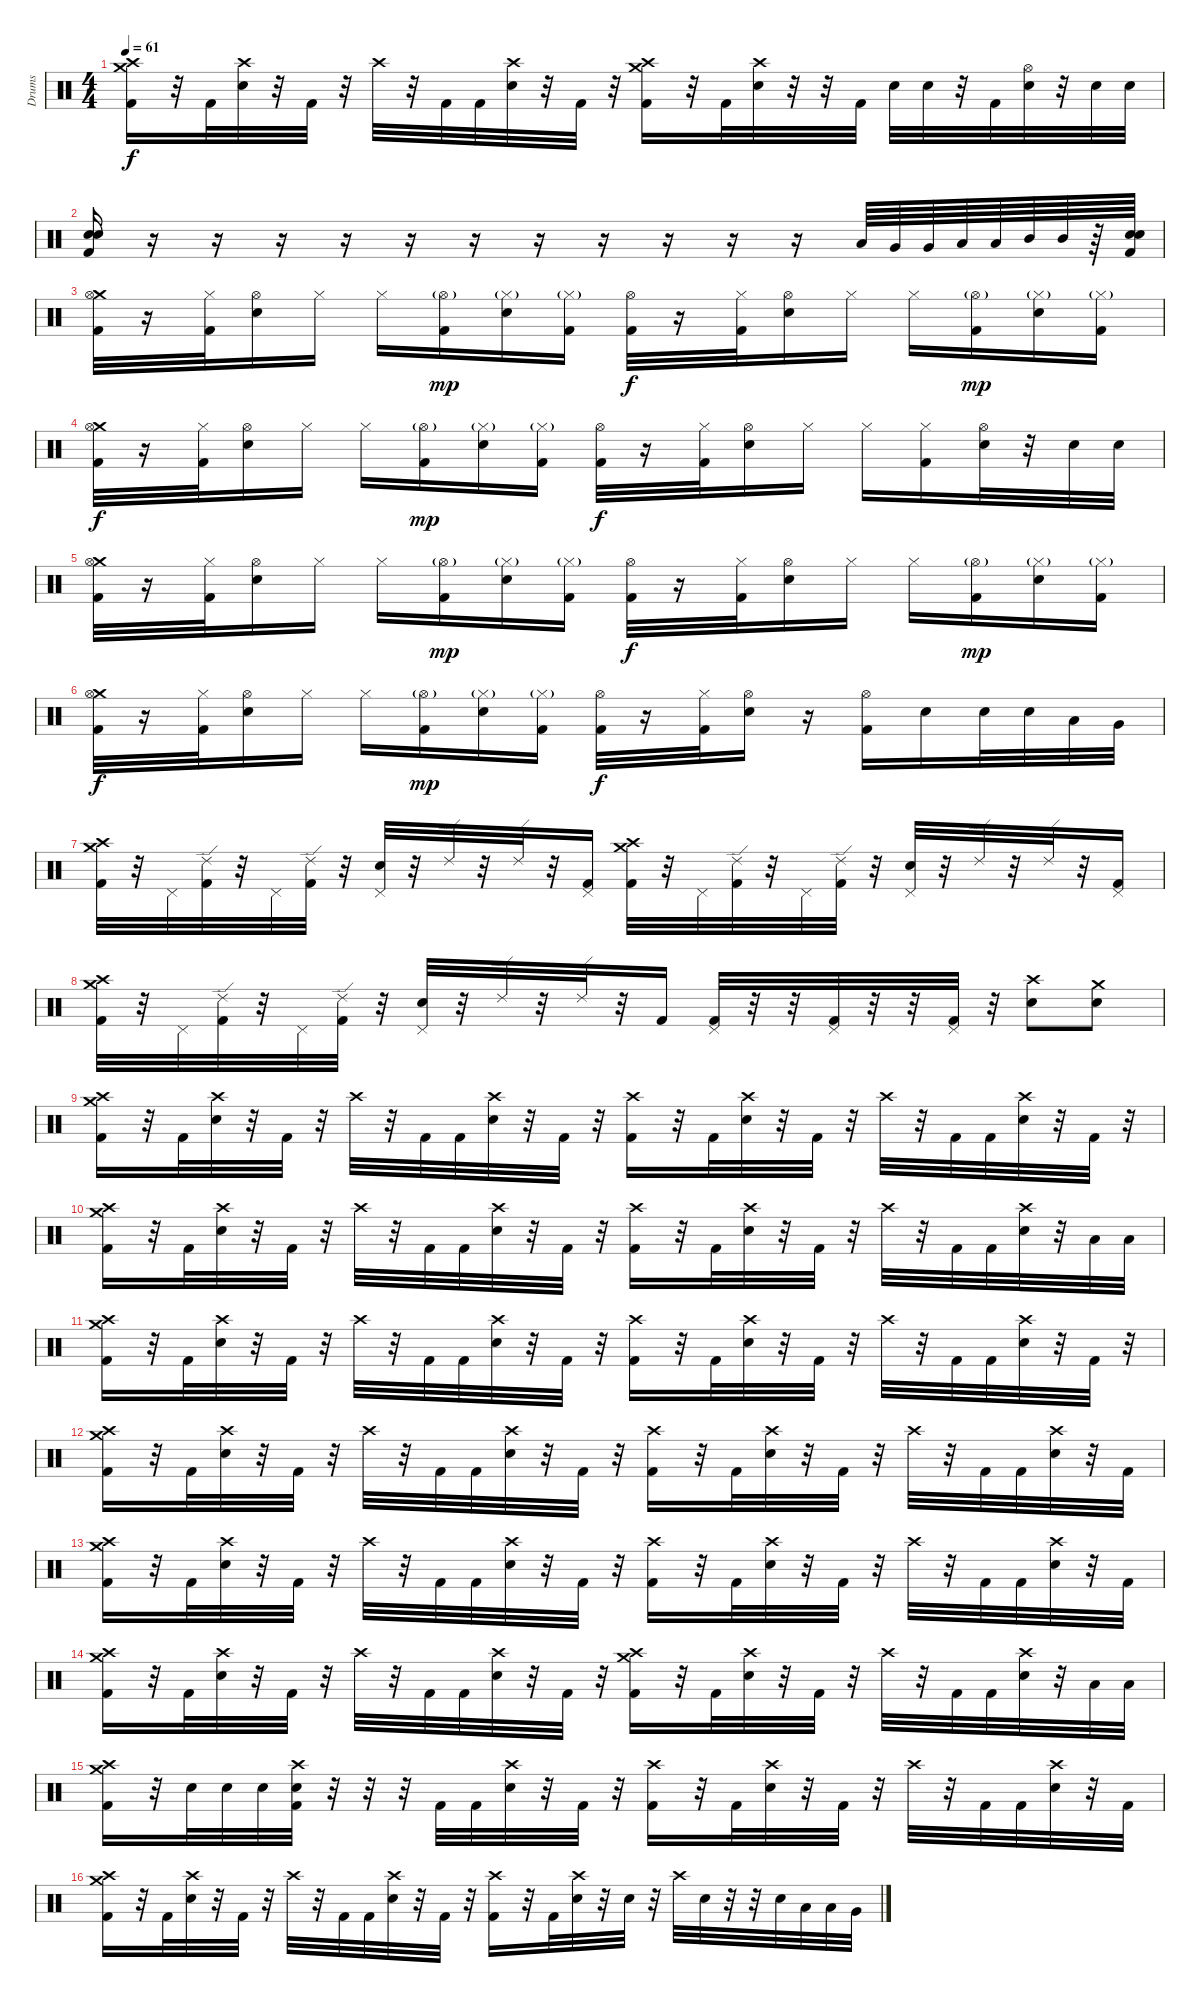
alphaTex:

\track ("Drums" "Drums") {instrument percussion}
\staff {score}
\articulation defaults
\ts (4 4)
\tempo 61
\clef neutral
\ks c
("Crash high (hit)" "Crash medium (hit)" "Kick (hit) 2").16{dy f} r.32 "Kick (hit) 2".32 ("Crash high (hit)" "Electric Snare (hit)").32 r.32 "Kick (hit) 2".32 r.32 "Crash high (hit)".32 r.32 "Kick (hit) 2".32 "Kick (hit) 2".32 ("Crash high (hit)" "Electric Snare (hit)").32 r.32 "Kick (hit) 2".32 r.32 ("Crash high (hit)" "Crash medium (hit)" "Kick (hit) 2").16 r.32 "Kick (hit) 2".32 ("Crash high (hit)" "Electric Snare (hit)").32 r.32 r.32 "Kick (hit) 2".32 "Electric Snare (hit)".32 "Electric Snare (hit)".32 r.32 "Kick (hit) 2".32 ("Hi-Hat (open)" "Electric Snare (hit)").32 r.32 "Electric Snare (hit)".32 "Electric Snare (hit)".32 |
("Electric Snare (hit)" "Electric Snare (hit)" "Kick (hit) 2").16 r.16 r.16 r.16 r.16 r.16 r.16 r.16 r.16 r.16 r.16 r.16 "Low Floor Tom (hit)".64 "Very Low Tom (hit)".64 "Very Low Tom (hit)".64 "Low Tom (hit)".64 "Low Tom (hit)".64 "Mid Tom (hit)".64 "Mid Tom (hit)".64 r.64 ("Electric Snare (hit)" "Electric Snare (hit)" "Kick (hit) 2").64 |
("Crash medium (hit)" "Hi-Hat (open)" "Kick (hit) 2").32 r.16 ("Hi-Hat (closed)" "Kick (hit) 2").32 ("Hi-Hat (open)" "Electric Snare (hit)").16 "Hi-Hat (closed)".16 "Hi-Hat (closed)".16 ("Hi-Hat (open)"{g} "Kick (hit) 2").16{dy mp} ("Hi-Hat (closed)"{g} "Electric Snare (hit)").16 ("Hi-Hat (closed)"{g} "Kick (hit) 2").16 ("Hi-Hat (open)" "Kick (hit) 2").32{dy f} r.16 ("Hi-Hat (closed)" "Kick (hit) 2").32 ("Hi-Hat (open)" "Electric Snare (hit)").16 "Hi-Hat (closed)".16 "Hi-Hat (closed)".16 ("Hi-Hat (open)"{g} "Kick (hit) 2").16{dy mp} ("Hi-Hat (closed)"{g} "Electric Snare (hit)").16 ("Hi-Hat (closed)"{g} "Kick (hit) 2").16 |
("Crash medium (hit)" "Hi-Hat (open)" "Kick (hit) 2").32{dy f} r.16 ("Hi-Hat (closed)" "Kick (hit) 2").32 ("Hi-Hat (open)" "Electric Snare (hit)").16 "Hi-Hat (closed)".16 "Hi-Hat (closed)".16 ("Hi-Hat (open)"{g} "Kick (hit) 2").16{dy mp} ("Hi-Hat (closed)"{g} "Electric Snare (hit)").16 ("Hi-Hat (closed)"{g} "Kick (hit) 2").16 ("Hi-Hat (open)" "Kick (hit) 2").32{dy f} r.16 ("Hi-Hat (closed)" "Kick (hit) 2").32 ("Hi-Hat (open)" "Electric Snare (hit)").16 "Hi-Hat (closed)".16 "Hi-Hat (closed)".16 ("Hi-Hat (closed)" "Kick (hit) 2").16 ("Hi-Hat (open)" "Electric Snare (hit)").32 r.32 "Electric Snare (hit)".32 "Electric Snare (hit)".32 |
("Crash medium (hit)" "Hi-Hat (open)" "Kick (hit) 2").32 r.16 ("Hi-Hat (closed)" "Kick (hit) 2").32 ("Hi-Hat (open)" "Electric Snare (hit)").16 "Hi-Hat (closed)".16 "Hi-Hat (closed)".16 ("Hi-Hat (open)"{g} "Kick (hit) 2").16{dy mp} ("Hi-Hat (closed)"{g} "Electric Snare (hit)").16 ("Hi-Hat (closed)"{g} "Kick (hit) 2").16 ("Hi-Hat (open)" "Kick (hit) 2").32{dy f} r.16 ("Hi-Hat (closed)" "Kick (hit) 2").32 ("Hi-Hat (open)" "Electric Snare (hit)").16 "Hi-Hat (closed)".16 "Hi-Hat (closed)".16 ("Hi-Hat (open)"{g} "Kick (hit) 2").16{dy mp} ("Hi-Hat (closed)"{g} "Electric Snare (hit)").16 ("Hi-Hat (closed)"{g} "Kick (hit) 2").16 |
("Crash medium (hit)" "Hi-Hat (open)" "Kick (hit) 2").32{dy f} r.16 ("Hi-Hat (closed)" "Kick (hit) 2").32 ("Hi-Hat (open)" "Electric Snare (hit)").16 "Hi-Hat (closed)".16 "Hi-Hat (closed)".16 ("Hi-Hat (open)"{g} "Kick (hit) 2").16{dy mp} ("Hi-Hat (closed)"{g} "Electric Snare (hit)").16 ("Hi-Hat (closed)"{g} "Kick (hit) 2").16 ("Hi-Hat (open)" "Kick (hit) 2").32{dy f} r.16 ("Hi-Hat (closed)" "Kick (hit) 2").32 ("Hi-Hat (open)" "Electric Snare (hit)").16 r.16 ("Hi-Hat (open)" "Kick (hit) 2").16 "Electric Snare (hit)".16 "Electric Snare (hit)".32 "Electric Snare (hit)".32 "Low Tom (hit)".32 "Very Low Tom (hit)".32 |
("Crash high (hit)" "Crash medium (hit)" "Kick (hit) 2").32 r.32 "Pedal Hi-Hat (hit)".32 ("Ride (edge) 2" "Kick (hit) 2").32 r.32 "Pedal Hi-Hat (hit)".32 ("Ride (edge) 2" "Kick (hit) 2").32 r.32 ("Pedal Hi-Hat (hit)" "Electric Snare (hit)").32 r.32 "Ride (edge) 2".32 r.32 "Ride (edge) 2".32 r.32 ("Pedal Hi-Hat (hit)" "Kick (hit) 2").16 ("Crash high (hit)" "Crash medium (hit)" "Kick (hit) 2").32 r.32 "Pedal Hi-Hat (hit)".32 ("Ride (edge) 2" "Kick (hit) 2").32 r.32 "Pedal Hi-Hat (hit)".32 ("Ride (edge) 2" "Kick (hit) 2").32 r.32 ("Pedal Hi-Hat (hit)" "Electric Snare (hit)").32 r.32 "Ride (edge) 2".32 r.32 "Ride (edge) 2".32 r.32 ("Pedal Hi-Hat (hit)" "Kick (hit) 2").16 |
("Crash high (hit)" "Crash medium (hit)" "Kick (hit) 2").32 r.32 "Pedal Hi-Hat (hit)".32 ("Ride (edge) 2" "Kick (hit) 2").32 r.32 "Pedal Hi-Hat (hit)".32 ("Ride (edge) 2" "Kick (hit) 2").32 r.32 ("Pedal Hi-Hat (hit)" "Electric Snare (hit)").32 r.32 "Ride (edge) 2".32 r.32 "Ride (edge) 2".32 r.32 "Kick (hit) 2".16 ("Pedal Hi-Hat (hit)" "Kick (hit) 2").32 r.32 r.32 ("Pedal Hi-Hat (hit)" "Kick (hit) 2").32 r.32 r.32 ("Pedal Hi-Hat (hit)" "Kick (hit) 2").32 r.32 ("Crash high (hit)" "Electric Snare (hit)").8 ("Crash medium (hit)" "Electric Snare (hit)").8 |
("Crash high (hit)" "Crash medium (hit)" "Kick (hit) 2").16 r.32 "Kick (hit) 2".32 ("Crash high (hit)" "Electric Snare (hit)").32 r.32 "Kick (hit) 2".32 r.32 "Crash high (hit)".32 r.32 "Kick (hit) 2".32 "Kick (hit) 2".32 ("Crash high (hit)" "Electric Snare (hit)").32 r.32 "Kick (hit) 2".32 r.32 ("Crash high (hit)" "Kick (hit) 2").16 r.32 "Kick (hit) 2".32 ("Crash high (hit)" "Electric Snare (hit)").32 r.32 "Kick (hit) 2".32 r.32 "Crash high (hit)".32 r.32 "Kick (hit) 2".32 "Kick (hit) 2".32 ("Crash high (hit)" "Electric Snare (hit)").32 r.32 "Kick (hit) 2".32 r.32 |
("Crash high (hit)" "Crash medium (hit)" "Kick (hit) 2").16 r.32 "Kick (hit) 2".32 ("Crash high (hit)" "Electric Snare (hit)").32 r.32 "Kick (hit) 2".32 r.32 "Crash high (hit)".32 r.32 "Kick (hit) 2".32 "Kick (hit) 2".32 ("Crash high (hit)" "Electric Snare (hit)").32 r.32 "Kick (hit) 2".32 r.32 ("Crash high (hit)" "Kick (hit) 2").16 r.32 "Kick (hit) 2".32 ("Crash high (hit)" "Electric Snare (hit)").32 r.32 "Kick (hit) 2".32 r.32 "Crash high (hit)".32 r.32 "Kick (hit) 2".32 "Kick (hit) 2".32 ("Crash high (hit)" "Electric Snare (hit)").32 r.32 "Low Tom (hit)".32 "Low Tom (hit)".32 |
("Crash high (hit)" "Crash medium (hit)" "Kick (hit) 2").16 r.32 "Kick (hit) 2".32 ("Crash high (hit)" "Electric Snare (hit)").32 r.32 "Kick (hit) 2".32 r.32 "Crash high (hit)".32 r.32 "Kick (hit) 2".32 "Kick (hit) 2".32 ("Crash high (hit)" "Electric Snare (hit)").32 r.32 "Kick (hit) 2".32 r.32 ("Crash high (hit)" "Kick (hit) 2").16 r.32 "Kick (hit) 2".32 ("Crash high (hit)" "Electric Snare (hit)").32 r.32 "Kick (hit) 2".32 r.32 "Crash high (hit)".32 r.32 "Kick (hit) 2".32 "Kick (hit) 2".32 ("Crash high (hit)" "Electric Snare (hit)").32 r.32 "Kick (hit) 2".32 r.32 |
("Crash high (hit)" "Crash medium (hit)" "Kick (hit) 2").16 r.32 "Kick (hit) 2".32 ("Crash high (hit)" "Electric Snare (hit)").32 r.32 "Kick (hit) 2".32 r.32 "Crash high (hit)".32 r.32 "Kick (hit) 2".32 "Kick (hit) 2".32 ("Crash high (hit)" "Electric Snare (hit)").32 r.32 "Kick (hit) 2".32 r.32 ("Crash high (hit)" "Kick (hit) 2").16 r.32 "Kick (hit) 2".32 ("Crash high (hit)" "Electric Snare (hit)").32 r.32 "Kick (hit) 2".32 r.32 "Crash high (hit)".32 r.32 "Kick (hit) 2".32 "Kick (hit) 2".32 ("Crash high (hit)" "Electric Snare (hit)").32 r.32 "Kick (hit) 2".32 |
("Crash high (hit)" "Crash medium (hit)" "Kick (hit) 2").16 r.32 "Kick (hit) 2".32 ("Crash high (hit)" "Electric Snare (hit)").32 r.32 "Kick (hit) 2".32 r.32 "Crash high (hit)".32 r.32 "Kick (hit) 2".32 "Kick (hit) 2".32 ("Crash high (hit)" "Electric Snare (hit)").32 r.32 "Kick (hit) 2".32 r.32 ("Crash high (hit)" "Kick (hit) 2").16 r.32 "Kick (hit) 2".32 ("Crash high (hit)" "Electric Snare (hit)").32 r.32 "Kick (hit) 2".32 r.32 "Crash high (hit)".32 r.32 "Kick (hit) 2".32 "Kick (hit) 2".32 ("Crash high (hit)" "Electric Snare (hit)").32 r.32 "Kick (hit) 2".32 |
("Crash high (hit)" "Crash medium (hit)" "Kick (hit) 2").16 r.32 "Kick (hit) 2".32 ("Crash high (hit)" "Electric Snare (hit)").32 r.32 "Kick (hit) 2".32 r.32 "Crash high (hit)".32 r.32 "Kick (hit) 2".32 "Kick (hit) 2".32 ("Crash high (hit)" "Electric Snare (hit)").32 r.32 "Kick (hit) 2".32 r.32 ("Crash high (hit)" "Crash medium (hit)" "Kick (hit) 2").16 r.32 "Kick (hit) 2".32 ("Crash high (hit)" "Electric Snare (hit)").32 r.32 "Kick (hit) 2".32 r.32 "Crash high (hit)".32 r.32 "Kick (hit) 2".32 "Kick (hit) 2".32 ("Crash high (hit)" "Electric Snare (hit)").32 r.32 "Low Tom (hit)".32 "Low Tom (hit)".32 |
("Crash high (hit)" "Crash medium (hit)" "Kick (hit) 2").16 r.32 "Electric Snare (hit)".32 "Electric Snare (hit)".32 "Electric Snare (hit)".32 ("Crash high (hit)" "Electric Snare (hit)" "Kick (hit) 2").32 r.32 r.32 r.32 "Kick (hit) 2".32 "Kick (hit) 2".32 ("Crash high (hit)" "Electric Snare (hit)").32 r.32 "Kick (hit) 2".32 r.32 ("Crash high (hit)" "Kick (hit) 2").16 r.32 "Kick (hit) 2".32 ("Crash high (hit)" "Electric Snare (hit)").32 r.32 "Kick (hit) 2".32 r.32 "Crash high (hit)".32 r.32 "Kick (hit) 2".32 "Kick (hit) 2".32 ("Crash high (hit)" "Electric Snare (hit)").32 r.32 "Kick (hit) 2".32 |
("Crash high (hit)" "Crash medium (hit)" "Kick (hit) 2").16 r.32 "Kick (hit) 2".32 ("Crash high (hit)" "Electric Snare (hit)").32 r.32 "Kick (hit) 2".32 r.32 "Crash high (hit)".32 r.32 "Kick (hit) 2".32 "Kick (hit) 2".32 ("Crash high (hit)" "Electric Snare (hit)").32 r.32 "Kick (hit) 2".32 r.32 ("Crash high (hit)" "Kick (hit) 2").16 r.32 "Kick (hit) 2".32 ("Crash high (hit)" "Electric Snare (hit)").32 r.32 "Electric Snare (hit)".32 r.32 "Crash high (hit)".32 "Electric Snare (hit)".32 r.32 r.32 "Electric Snare (hit)".32 "Low Tom (hit)".32 "Low Tom (hit)".32 "Very Low Tom (hit)".32
